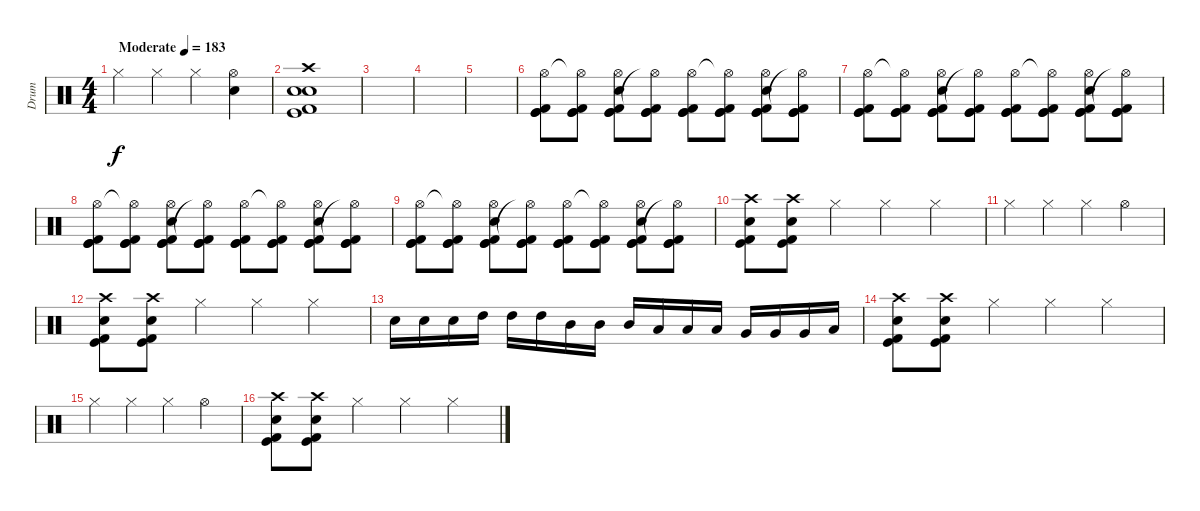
\track ("Drum" "Drum") {instrument percussion}
\staff {score}
\articulation defaults
\ts (4 4)
\tempo (183 "Moderate")
\clef neutral
\ks c "Hi-Hat (closed)".4{dy f} "Hi-Hat (closed)".4 "Hi-Hat (closed)".4
("Hi-Hat (open)" "Snare (hit) 2").4 |
("Electric Snare (hit)" "Electric Snare (hit)" "Kick (hit)" "Kick (hit) 2" "Crash high (hit)").1 |
|
|
|
("Kick (hit) 2" "Hi-Hat (open)" "Kick (hit)" "Kick (hit)").8 ("Kick (hit) 2" "Hi-Hat (open)"{t} "Kick (hit)" "Kick (hit)").8 ("Electric Snare (hit)" "Kick (hit) 2" "Hi-Hat (open)" "Kick (hit)" "Kick (hit)").8 ("Kick (hit) 2" "Hi-Hat (open)"{t} "Kick (hit)" "Kick (hit)").8 ("Kick (hit) 2" "Hi-Hat (open)" "Kick (hit)" "Kick (hit)").8 ("Kick (hit) 2" "Hi-Hat (open)"{t} "Kick (hit)" "Kick (hit)").8 ("Electric Snare (hit)" "Kick (hit) 2" "Hi-Hat (open)" "Kick (hit)" "Kick (hit)").8 ("Kick (hit) 2" "Hi-Hat (open)"{t} "Kick (hit)" "Kick (hit)").8 |
("Kick (hit) 2" "Hi-Hat (open)" "Kick (hit)" "Kick (hit)").8 ("Kick (hit) 2" "Hi-Hat (open)"{t} "Kick (hit)" "Kick (hit)").8 ("Electric Snare (hit)" "Kick (hit) 2" "Hi-Hat (open)" "Kick (hit)" "Kick (hit)").8 ("Kick (hit) 2" "Hi-Hat (open)"{t} "Kick (hit)" "Kick (hit)").8 ("Kick (hit) 2" "Hi-Hat (open)" "Kick (hit)" "Kick (hit)").8 ("Kick (hit) 2" "Hi-Hat (open)"{t} "Kick (hit)" "Kick (hit)").8 ("Electric Snare (hit)" "Kick (hit) 2" "Hi-Hat (open)" "Kick (hit)" "Kick (hit)").8 ("Kick (hit) 2" "Hi-Hat (open)"{t} "Kick (hit)" "Kick (hit)").8 |
("Kick (hit) 2" "Hi-Hat (open)" "Kick (hit)" "Kick (hit)").8 ("Kick (hit) 2" "Hi-Hat (open)"{t} "Kick (hit)" "Kick (hit)").8 ("Electric Snare (hit)" "Kick (hit) 2" "Hi-Hat (open)" "Kick (hit)" "Kick (hit)").8 ("Kick (hit) 2" "Hi-Hat (open)"{t} "Kick (hit)" "Kick (hit)").8 ("Kick (hit) 2" "Hi-Hat (open)" "Kick (hit)" "Kick (hit)").8 ("Kick (hit) 2" "Hi-Hat (open)"{t} "Kick (hit)" "Kick (hit)").8 ("Electric Snare (hit)" "Kick (hit) 2" "Hi-Hat (open)" "Kick (hit)" "Kick (hit)").8 ("Kick (hit) 2" "Hi-Hat (open)"{t} "Kick (hit)" "Kick (hit)").8 |
("Kick (hit) 2" "Hi-Hat (open)" "Kick (hit)" "Kick (hit)").8 ("Kick (hit) 2" "Hi-Hat (open)"{t} "Kick (hit)" "Kick (hit)").8 ("Electric Snare (hit)" "Kick (hit) 2" "Hi-Hat (open)" "Kick (hit)" "Kick (hit)").8 ("Kick (hit) 2" "Hi-Hat (open)"{t} "Kick (hit)" "Kick (hit)").8 ("Kick (hit) 2" "Hi-Hat (open)" "Kick (hit)" "Kick (hit)").8 ("Kick (hit) 2" "Hi-Hat (open)"{t} "Kick (hit)" "Kick (hit)").8 ("Electric Snare (hit)" "Kick (hit) 2" "Hi-Hat (open)" "Kick (hit)" "Kick (hit)").8 ("Kick (hit) 2" "Hi-Hat (open)"{t} "Kick (hit)" "Kick (hit)").8 |
("Crash high (hit)" "Electric Snare (hit)" "Kick (hit) 2" "Kick (hit)").8 ("Crash high (hit)" "Electric Snare (hit)" "Kick (hit) 2" "Kick (hit)").8 "Hi-Hat (closed)".4 "Hi-Hat (closed)".4 "Hi-Hat (closed)".4 |
"Hi-Hat (closed)".4 "Hi-Hat (closed)".4 "Hi-Hat (closed)".4 "Hi-Hat (open)".4 |
("Crash high (hit)" "Electric Snare (hit)" "Kick (hit) 2" "Kick (hit)").8 ("Crash high (hit)" "Electric Snare (hit)" "Kick (hit) 2" "Kick (hit)").8 "Hi-Hat (closed)".4 "Hi-Hat (closed)".4 "Hi-Hat (closed)".4 |
"Electric Snare (hit)".16 "Electric Snare (hit)".16 "Electric Snare (hit)".16 "High Tom (hit)".16 "High Tom (hit)".16 "High Tom (hit)".16 "Mid Tom (hit)".16 "Mid Tom (hit)".16 "Mid Tom (hit)".16 "Low Tom (hit)".16 "Low Tom (hit)".16 "Low Tom (hit)".16 "Very Low Tom (hit)".16 "Very Low Tom (hit)".16 "Very Low Tom (hit)".16 "Low Floor Tom (hit)".16 |
("Crash high (hit)" "Electric Snare (hit)" "Kick (hit) 2" "Kick (hit)").8 ("Crash high (hit)" "Electric Snare (hit)" "Kick (hit) 2" "Kick (hit)").8 "Hi-Hat (closed)".4 "Hi-Hat (closed)".4 "Hi-Hat (closed)".4 |
"Hi-Hat (closed)".4 "Hi-Hat (closed)".4 "Hi-Hat (closed)".4 "Hi-Hat (open)".4 |
("Crash high (hit)" "Electric Snare (hit)" "Kick (hit) 2" "Kick (hit)").8 ("Crash high (hit)" "Electric Snare (hit)" "Kick (hit) 2" "Kick (hit)").8 "Hi-Hat (closed)".4 "Hi-Hat (closed)".4 "Hi-Hat (closed)".4
